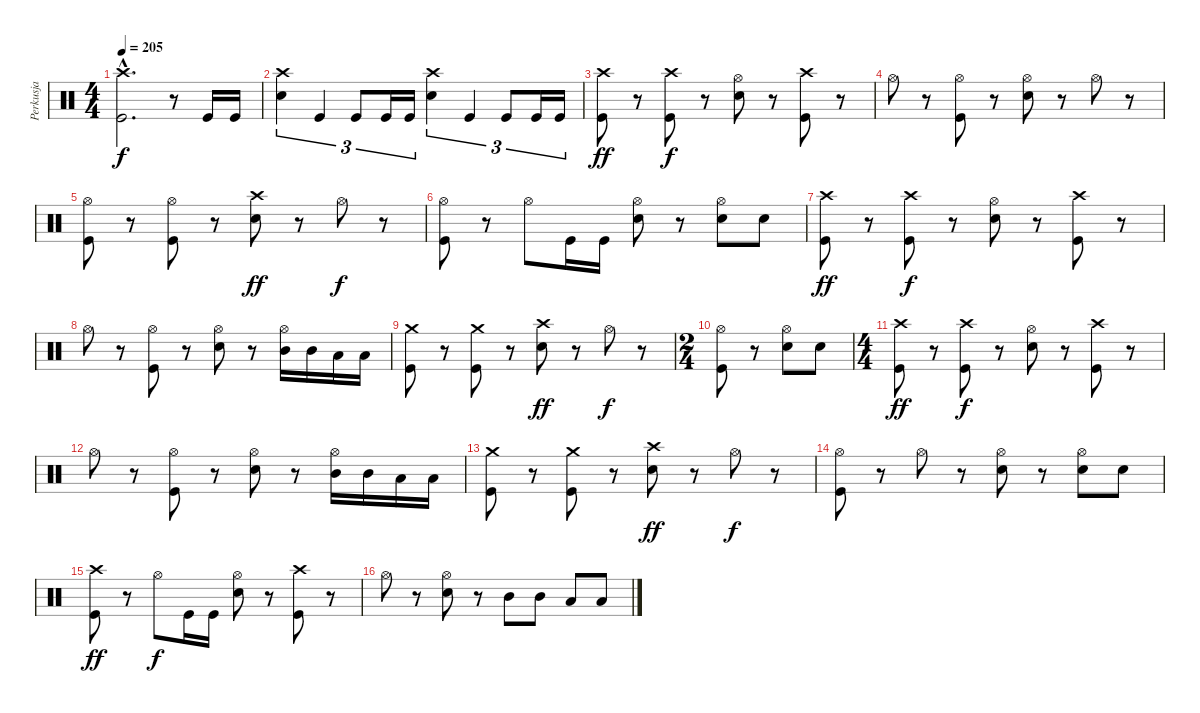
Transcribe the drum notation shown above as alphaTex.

\track ("Perkusja" "Perkusja") {instrument percussion}
\staff {score}
\articulation defaults
\ts (4 4)
\tempo 205
\clef neutral
\ks c
("Crash high (hit)"{hac} "Kick (hit)"{hac}).2{d dy f} r.8 "Kick (hit)".16 "Kick (hit)".16 |
("Crash high (hit)" "Snare (hit) 2").4{tu (3 2)} "Kick (hit)".4{tu (3 2)} "Kick (hit)".8{tu (3 2)} "Kick (hit)".16{tu (3 2)} "Kick (hit)".16{tu (3 2)} ("Crash high (hit)" "Snare (hit) 2").4{tu (3 2)} "Kick (hit)".4{tu (3 2)} "Kick (hit)".8{tu (3 2)} "Kick (hit)".16{tu (3 2)} "Kick (hit)".16{tu (3 2)} |
("Crash high (hit)" "Kick (hit)").8{dy ff} r.8 ("Crash high (hit)" "Kick (hit)").8{dy f} r.8 ("Hi-Hat (open)" "Snare (hit) 2").8 r.8 ("Crash high (hit)" "Kick (hit)").8 r.8 |
"Hi-Hat (open)".8 r.8 ("Hi-Hat (open)" "Kick (hit)").8 r.8 ("Hi-Hat (open)" "Snare (hit) 2").8 r.8 "Hi-Hat (open)".8 r.8 |
("Hi-Hat (open)" "Kick (hit)").8 r.8 ("Hi-Hat (open)" "Kick (hit)").8 r.8 ("Crash high (hit)" "Snare (hit) 2").8{dy ff} r.8 "Hi-Hat (open)".8{dy f} r.8 |
("Hi-Hat (open)" "Kick (hit)").8 r.8 "Hi-Hat (open)".8 "Kick (hit)".16 "Kick (hit)".16 ("Hi-Hat (open)" "Snare (hit) 2").8 r.8 ("Hi-Hat (open)" "Snare (hit) 2").8 "Snare (hit) 2".8 |
("Crash high (hit)" "Kick (hit)").8{dy ff} r.8 ("Crash high (hit)" "Kick (hit)").8{dy f} r.8 ("Hi-Hat (open)" "Snare (hit) 2").8 r.8 ("Crash high (hit)" "Kick (hit)").8 r.8 |
"Hi-Hat (open)".8 r.8 ("Hi-Hat (open)" "Kick (hit)").8 r.8 ("Hi-Hat (open)" "Snare (hit) 2").8 r.8 ("Hi-Hat (open)" "Mid Tom (hit)").16 "Mid Tom (hit)".16 "Low Tom (hit)".16 "Low Tom (hit)".16 |
("Crash medium (hit)" "Kick (hit)").8 r.8 ("Crash medium (hit)" "Kick (hit)").8 r.8 ("Crash high (hit)" "Snare (hit) 2").8{dy ff} r.8 "Hi-Hat (open)".8{dy f} r.8 |
\ts (2 4)
("Hi-Hat (open)" "Kick (hit)").8 r.8 ("Hi-Hat (open)" "Snare (hit) 2").8 "Snare (hit) 2".8 |
\ts (4 4)
("Crash high (hit)" "Kick (hit)").8{dy ff} r.8 ("Crash high (hit)" "Kick (hit)").8{dy f} r.8 ("Hi-Hat (open)" "Snare (hit) 2").8 r.8 ("Crash high (hit)" "Kick (hit)").8 r.8 |
"Hi-Hat (open)".8 r.8 ("Hi-Hat (open)" "Kick (hit)").8 r.8 ("Hi-Hat (open)" "Snare (hit) 2").8 r.8 ("Hi-Hat (open)" "Mid Tom (hit)").16 "Mid Tom (hit)".16 "Low Tom (hit)".16 "Low Tom (hit)".16 |
("Crash medium (hit)" "Kick (hit)").8 r.8 ("Crash medium (hit)" "Kick (hit)").8 r.8 ("Crash high (hit)" "Snare (hit) 2").8{dy ff} r.8 "Hi-Hat (open)".8{dy f} r.8 |
("Hi-Hat (open)" "Kick (hit)").8 r.8 "Hi-Hat (open)".8 r.8 ("Hi-Hat (open)" "Snare (hit) 2").8 r.8 ("Hi-Hat (open)" "Snare (hit) 2").8 "Snare (hit) 2".8 |
("Crash high (hit)" "Kick (hit)").8{dy ff} r.8 "Hi-Hat (open)".8{dy f} "Kick (hit)".16 "Kick (hit)".16 ("Hi-Hat (open)" "Snare (hit) 2").8 r.8 ("Crash high (hit)" "Kick (hit)").8 r.8 |
"Hi-Hat (open)".8 r.8 ("Hi-Hat (open)" "Snare (hit) 2").8 r.8 "Mid Tom (hit)".8 "Mid Tom (hit)".8 "Low Tom (hit)".8 "Low Tom (hit)".8
